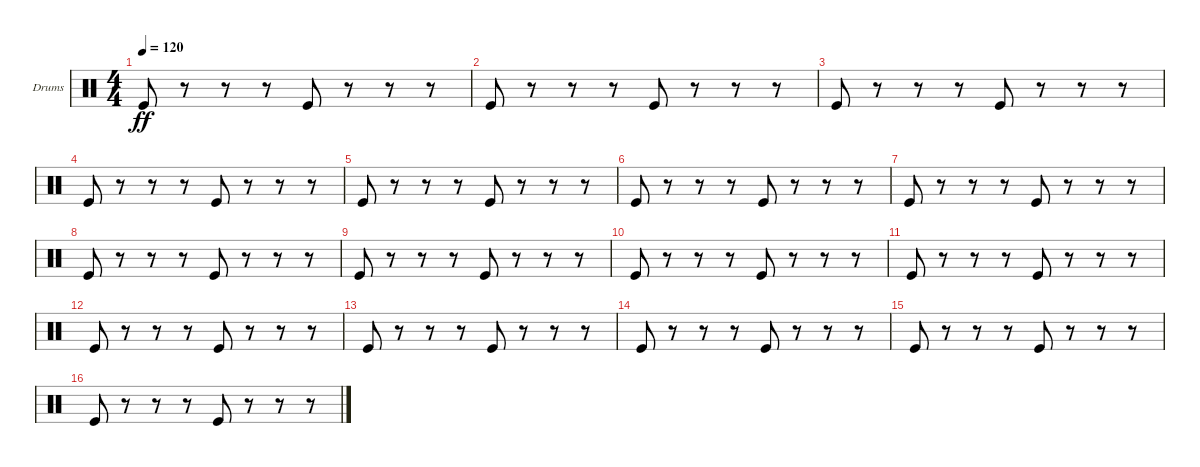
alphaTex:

\defaultSystemsLayout 4
\bracketExtendMode groupsimilarinstruments
\firstSystemTrackNameOrientation horizontal
\otherSystemsTrackNameOrientation horizontal
\track ("Cajon (Drum Box)" "Drums") {instrument percussion}
\staff {score}
\articulation defaults
\ts (4 4)
\tempo 120
\clef neutral
\ks c "Kick (hit)".8{dy ff}
r.8 r.8 r.8 "Kick (hit)".8 r.8 r.8 r.8 |
"Kick (hit)".8 r.8 r.8 r.8 "Kick (hit)".8 r.8 r.8 r.8 |
"Kick (hit)".8 r.8 r.8 r.8 "Kick (hit)".8 r.8 r.8 r.8 |
"Kick (hit)".8 r.8 r.8 r.8 "Kick (hit)".8 r.8 r.8 r.8 |
"Kick (hit)".8 r.8 r.8 r.8 "Kick (hit)".8 r.8 r.8 r.8 |
"Kick (hit)".8 r.8 r.8 r.8 "Kick (hit)".8 r.8 r.8 r.8 |
"Kick (hit)".8 r.8 r.8 r.8 "Kick (hit)".8 r.8 r.8 r.8 |
"Kick (hit)".8 r.8 r.8 r.8 "Kick (hit)".8 r.8 r.8 r.8 |
"Kick (hit)".8 r.8 r.8 r.8 "Kick (hit)".8 r.8 r.8 r.8 |
"Kick (hit)".8 r.8 r.8 r.8 "Kick (hit)".8 r.8 r.8 r.8 |
"Kick (hit)".8 r.8 r.8 r.8 "Kick (hit)".8 r.8 r.8 r.8 |
"Kick (hit)".8 r.8 r.8 r.8 "Kick (hit)".8 r.8 r.8 r.8 |
"Kick (hit)".8 r.8 r.8 r.8 "Kick (hit)".8 r.8 r.8 r.8 |
"Kick (hit)".8 r.8 r.8 r.8 "Kick (hit)".8 r.8 r.8 r.8 |
"Kick (hit)".8 r.8 r.8 r.8 "Kick (hit)".8 r.8 r.8 r.8 |
"Kick (hit)".8 r.8 r.8 r.8 "Kick (hit)".8 r.8 r.8 r.8
